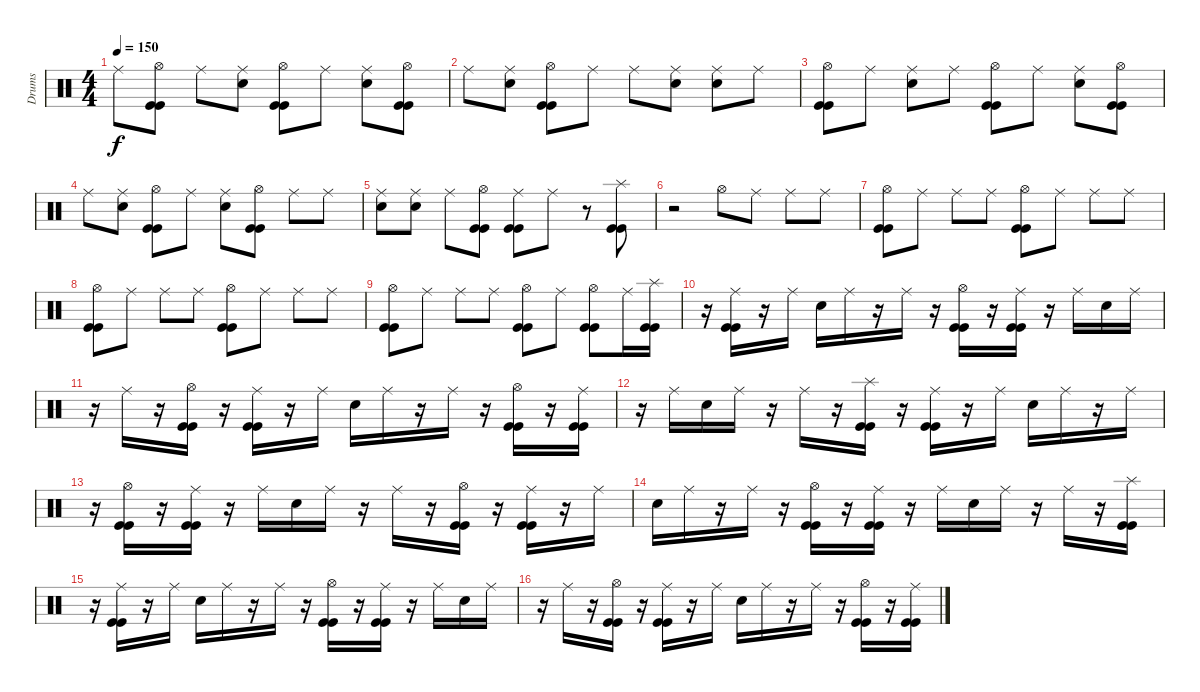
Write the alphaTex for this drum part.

\track ("Drums" "Drums") {instrument percussion}
\staff {score}
\articulation defaults
\ts (4 4)
\tempo 150
\clef neutral
\ks c "Ride (middle)".8{dy f}
("Hi-Hat (open)" "Kick (hit)" "Kick (hit)").8 "Ride (middle)".8 ("Ride (middle)" "Snare (hit) 2").8 ("Hi-Hat (open)" "Kick (hit)" "Kick (hit)").8 "Ride (middle)".8 ("Ride (middle)" "Snare (hit) 2").8 ("Hi-Hat (open)" "Kick (hit)" "Kick (hit)").8 |
"Ride (middle)".8 ("Ride (middle)" "Snare (hit) 2").8 ("Hi-Hat (open)" "Kick (hit)" "Kick (hit)").8 "Ride (middle)".8 "Ride (middle)".8 ("Ride (middle)" "Snare (hit) 2").8 ("Ride (middle)" "Snare (hit) 2").8 "Ride (middle)".8 |
("Hi-Hat (open)" "Kick (hit)" "Kick (hit)").8 "Ride (middle)".8 ("Ride (middle)" "Snare (hit) 2").8 "Ride (middle)".8 ("Hi-Hat (open)" "Kick (hit)" "Kick (hit)").8 "Ride (middle)".8 ("Ride (middle)" "Snare (hit) 2").8 ("Hi-Hat (open)" "Kick (hit)" "Kick (hit)").8 |
"Ride (middle)".8 ("Ride (middle)" "Snare (hit) 2").8 ("Hi-Hat (open)" "Kick (hit)" "Kick (hit)").8 "Ride (middle)".8 ("Ride (middle)" "Snare (hit) 2").8 ("Hi-Hat (open)" "Kick (hit)" "Kick (hit)").8 "Ride (middle)".8 "Ride (middle)".8 |
("Ride (middle)" "Snare (hit) 2").8 ("Ride (middle)" "Snare (hit) 2").8 "Ride (middle)".8 ("Hi-Hat (open)" "Kick (hit)" "Kick (hit)").8 ("Ride (middle)" "Kick (hit)" "Kick (hit)").8 "Ride (middle)".8 r.8 ("Splash (hit)" "Kick (hit)" "Kick (hit)").8 |
r.2 "Hi-Hat (open)".8 "Ride (middle)".8 "Ride (middle)".8 "Ride (middle)".8 |
("Hi-Hat (open)" "Kick (hit)" "Kick (hit)").8 "Ride (middle)".8 "Ride (middle)".8 "Ride (middle)".8 ("Hi-Hat (open)" "Kick (hit)" "Kick (hit)").8 "Ride (middle)".8 "Ride (middle)".8 "Ride (middle)".8 |
("Hi-Hat (open)" "Kick (hit)" "Kick (hit)").8 "Ride (middle)".8 "Ride (middle)".8 "Ride (middle)".8 ("Hi-Hat (open)" "Kick (hit)" "Kick (hit)").8 "Ride (middle)".8 "Ride (middle)".8 "Ride (middle)".8 |
("Hi-Hat (open)" "Kick (hit)" "Kick (hit)").8 "Ride (middle)".8 "Ride (middle)".8 "Ride (middle)".8 ("Hi-Hat (open)" "Kick (hit)" "Kick (hit)").8 "Ride (middle)".8 ("Hi-Hat (open)" "Kick (hit)" "Kick (hit)").8 "Ride (middle)".16 ("Splash (hit)" "Kick (hit)" "Kick (hit)").16 |
r.16 ("Ride (middle)" "Kick (hit)" "Kick (hit)").16 r.16 "Ride (middle)".16 "Snare (hit) 2".16 "Ride (middle)".16 r.16 "Ride (middle)".16 r.16 ("Hi-Hat (open)" "Kick (hit)" "Kick (hit)").16 r.16 ("Ride (middle)" "Kick (hit)" "Kick (hit)").16 r.16 "Ride (middle)".16 "Snare (hit) 2".16 "Ride (middle)".16 |
r.16 "Ride (middle)".16 r.16 ("Hi-Hat (open)" "Kick (hit)" "Kick (hit)").16 r.16 ("Ride (middle)" "Kick (hit)" "Kick (hit)").16 r.16 "Ride (middle)".16 "Snare (hit) 2".16 "Ride (middle)".16 r.16 "Ride (middle)".16 r.16 ("Hi-Hat (open)" "Kick (hit)" "Kick (hit)").16 r.16 ("Ride (middle)" "Kick (hit)" "Kick (hit)").16 |
r.16 "Ride (middle)".16 "Snare (hit) 2".16 "Ride (middle)".16 r.16 "Ride (middle)".16 r.16 ("Splash (hit)" "Kick (hit)" "Kick (hit)").16 r.16 ("Ride (middle)" "Kick (hit)" "Kick (hit)").16 r.16 "Ride (middle)".16 "Snare (hit) 2".16 "Ride (middle)".16 r.16 "Ride (middle)".16 |
r.16 ("Hi-Hat (open)" "Kick (hit)" "Kick (hit)").16 r.16 ("Ride (middle)" "Kick (hit)" "Kick (hit)").16 r.16 "Ride (middle)".16 "Snare (hit) 2".16 "Ride (middle)".16 r.16 "Ride (middle)".16 r.16 ("Hi-Hat (open)" "Kick (hit)" "Kick (hit)").16 r.16 ("Ride (middle)" "Kick (hit)" "Kick (hit)").16 r.16 "Ride (middle)".16 |
"Snare (hit) 2".16 "Ride (middle)".16 r.16 "Ride (middle)".16 r.16 ("Hi-Hat (open)" "Kick (hit)" "Kick (hit)").16 r.16 ("Ride (middle)" "Kick (hit)" "Kick (hit)").16 r.16 "Ride (middle)".16 "Snare (hit) 2".16 "Ride (middle)".16 r.16 "Ride (middle)".16 r.16 ("Splash (hit)" "Kick (hit)" "Kick (hit)").16 |
r.16 ("Ride (middle)" "Kick (hit)" "Kick (hit)").16 r.16 "Ride (middle)".16 "Snare (hit) 2".16 "Ride (middle)".16 r.16 "Ride (middle)".16 r.16 ("Hi-Hat (open)" "Kick (hit)" "Kick (hit)").16 r.16 ("Ride (middle)" "Kick (hit)" "Kick (hit)").16 r.16 "Ride (middle)".16 "Snare (hit) 2".16 "Ride (middle)".16 |
r.16 "Ride (middle)".16 r.16 ("Hi-Hat (open)" "Kick (hit)" "Kick (hit)").16 r.16 ("Ride (middle)" "Kick (hit)" "Kick (hit)").16 r.16 "Ride (middle)".16 "Snare (hit) 2".16 "Ride (middle)".16 r.16 "Ride (middle)".16 r.16 ("Hi-Hat (open)" "Kick (hit)" "Kick (hit)").16 r.16 ("Ride (middle)" "Kick (hit)" "Kick (hit)").16
